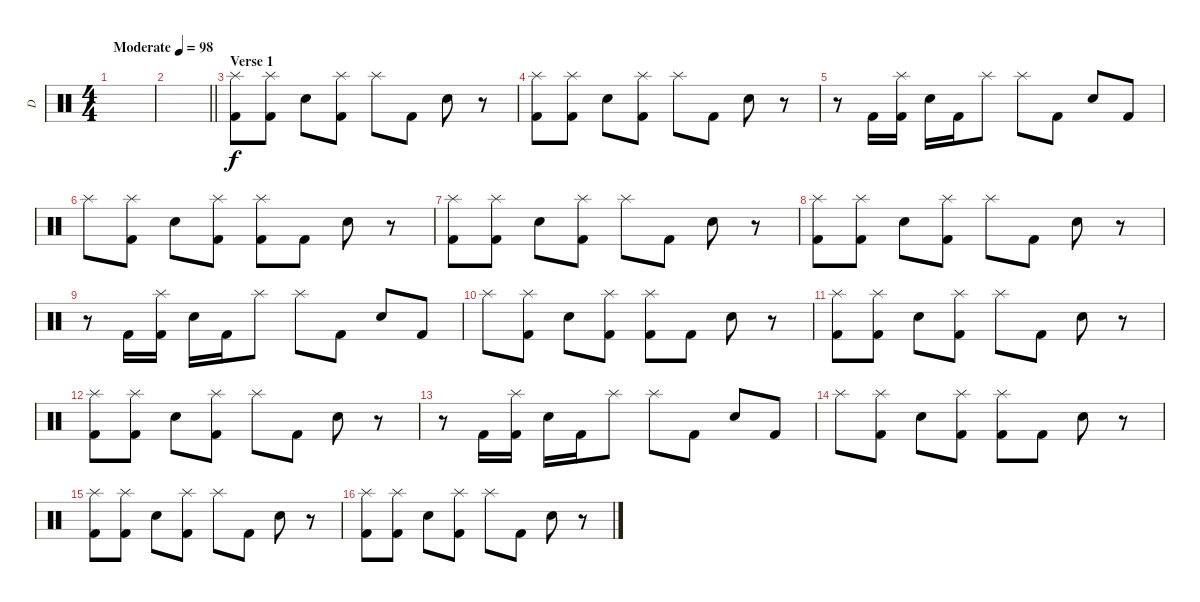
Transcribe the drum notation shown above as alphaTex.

\track ("D" "D") {instrument percussion}
\staff {score}
\articulation defaults
\ts (4 4)
\tempo (98 "Moderate")
\clef neutral
\ks c
|
\barLineRight lightlight
|
\section ("" "Verse 1")
("Kick (hit) 2" "Splash (hit)").8 ("Kick (hit) 2" "Splash (hit)").8 "Electric Snare (hit)".8 ("Kick (hit) 2" "Splash (hit)").8 "Splash (hit)".8 "Kick (hit) 2".8 "Electric Snare (hit)".8 r.8 |
("Kick (hit) 2" "Splash (hit)").8 ("Kick (hit) 2" "Splash (hit)").8 "Electric Snare (hit)".8 ("Kick (hit) 2" "Splash (hit)").8 "Splash (hit)".8 "Kick (hit) 2".8 "Electric Snare (hit)".8 r.8 |
r.8 "Kick (hit) 2".16 ("Kick (hit) 2" "Splash (hit)").16 "Electric Snare (hit)".16 "Kick (hit) 2".16 "Splash (hit)".8 "Splash (hit)".8 "Kick (hit) 2".8 "Electric Snare (hit)".8 "Kick (hit) 2".8 |
"Splash (hit)".8 ("Kick (hit) 2" "Splash (hit)").8 "Electric Snare (hit)".8 ("Kick (hit) 2" "Splash (hit)").8 ("Kick (hit) 2" "Splash (hit)").8 "Kick (hit) 2".8 "Electric Snare (hit)".8 r.8 |
("Kick (hit) 2" "Splash (hit)").8 ("Kick (hit) 2" "Splash (hit)").8 "Electric Snare (hit)".8 ("Kick (hit) 2" "Splash (hit)").8 "Splash (hit)".8 "Kick (hit) 2".8 "Electric Snare (hit)".8 r.8 |
("Kick (hit) 2" "Splash (hit)").8 ("Kick (hit) 2" "Splash (hit)").8 "Electric Snare (hit)".8 ("Kick (hit) 2" "Splash (hit)").8 "Splash (hit)".8 "Kick (hit) 2".8 "Electric Snare (hit)".8 r.8 |
r.8 "Kick (hit) 2".16 ("Kick (hit) 2" "Splash (hit)").16 "Electric Snare (hit)".16 "Kick (hit) 2".16 "Splash (hit)".8 "Splash (hit)".8 "Kick (hit) 2".8 "Electric Snare (hit)".8 "Kick (hit) 2".8 |
"Splash (hit)".8 ("Kick (hit) 2" "Splash (hit)").8 "Electric Snare (hit)".8 ("Kick (hit) 2" "Splash (hit)").8 ("Kick (hit) 2" "Splash (hit)").8 "Kick (hit) 2".8 "Electric Snare (hit)".8 r.8 |
("Kick (hit) 2" "Splash (hit)").8 ("Kick (hit) 2" "Splash (hit)").8 "Electric Snare (hit)".8 ("Kick (hit) 2" "Splash (hit)").8 "Splash (hit)".8 "Kick (hit) 2".8 "Electric Snare (hit)".8 r.8 |
("Kick (hit) 2" "Splash (hit)").8 ("Kick (hit) 2" "Splash (hit)").8 "Electric Snare (hit)".8 ("Kick (hit) 2" "Splash (hit)").8 "Splash (hit)".8 "Kick (hit) 2".8 "Electric Snare (hit)".8 r.8 |
r.8 "Kick (hit) 2".16 ("Kick (hit) 2" "Splash (hit)").16 "Electric Snare (hit)".16 "Kick (hit) 2".16 "Splash (hit)".8 "Splash (hit)".8 "Kick (hit) 2".8 "Electric Snare (hit)".8 "Kick (hit) 2".8 |
"Splash (hit)".8 ("Kick (hit) 2" "Splash (hit)").8 "Electric Snare (hit)".8 ("Kick (hit) 2" "Splash (hit)").8 ("Kick (hit) 2" "Splash (hit)").8 "Kick (hit) 2".8 "Electric Snare (hit)".8 r.8 |
("Kick (hit) 2" "Splash (hit)").8 ("Kick (hit) 2" "Splash (hit)").8 "Electric Snare (hit)".8 ("Kick (hit) 2" "Splash (hit)").8 "Splash (hit)".8 "Kick (hit) 2".8 "Electric Snare (hit)".8 r.8 |
("Kick (hit) 2" "Splash (hit)").8 ("Kick (hit) 2" "Splash (hit)").8 "Electric Snare (hit)".8 ("Kick (hit) 2" "Splash (hit)").8 "Splash (hit)".8 "Kick (hit) 2".8 "Electric Snare (hit)".8 r.8
